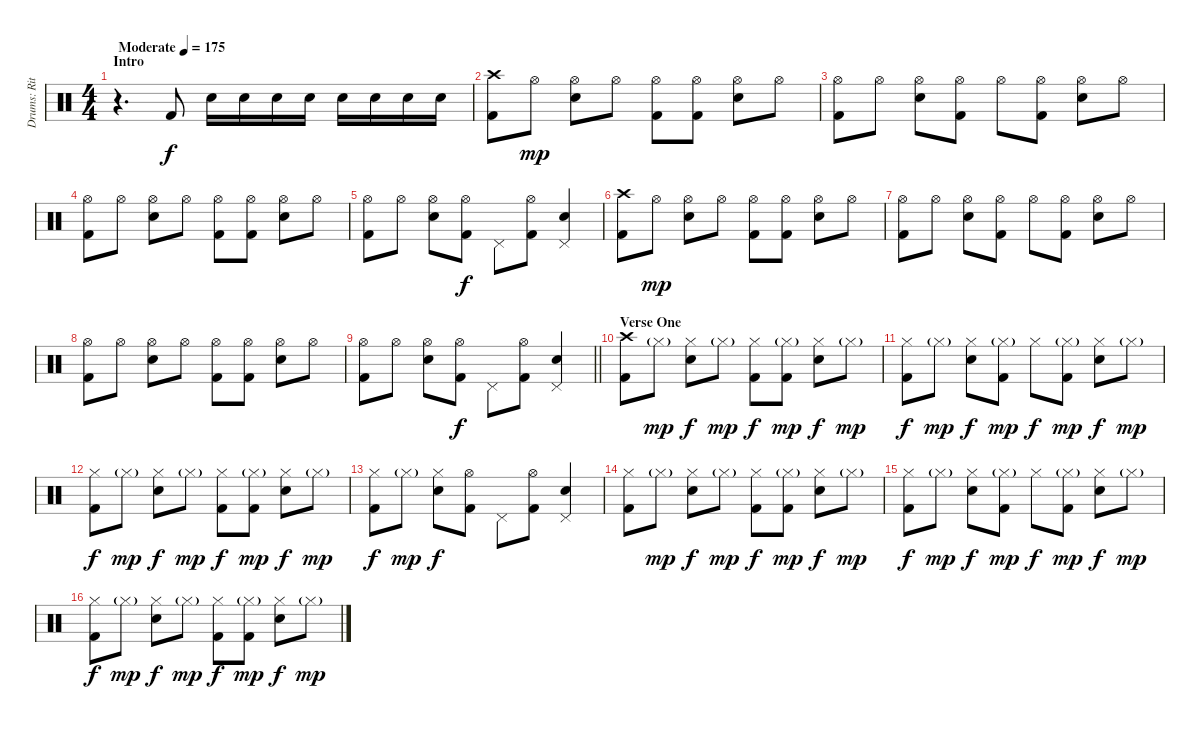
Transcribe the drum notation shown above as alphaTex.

\track ("Drums: Ritsu Tainaka" "Drums: Rit") {instrument percussion}
\staff {score}
\articulation defaults
\ts (4 4)
\section ("" "Intro")
\tempo (175 "Moderate")
\clef neutral
\ks c
r.4{d dy f} "Kick (hit) 2".8 "Snare (hit) 2".16 "Snare (hit) 2".16 "Snare (hit) 2".16 "Snare (hit) 2".16 "Snare (hit) 2".16 "Snare (hit) 2".16 "Snare (hit) 2".16 "Snare (hit) 2".16 |
("Crash high (hit)" "Kick (hit) 2").8 "Hi-Hat (open)".8{dy mp} ("Hi-Hat (open)" "Snare (hit) 2").8 "Hi-Hat (open)".8 ("Hi-Hat (open)" "Kick (hit) 2").8 ("Hi-Hat (open)" "Kick (hit) 2").8 ("Hi-Hat (open)" "Snare (hit) 2").8 "Hi-Hat (open)".8 |
("Hi-Hat (open)" "Kick (hit) 2").8 "Hi-Hat (open)".8 ("Hi-Hat (open)" "Snare (hit) 2").8 ("Hi-Hat (open)" "Kick (hit) 2").8 "Hi-Hat (open)".8 ("Hi-Hat (open)" "Kick (hit) 2").8 ("Hi-Hat (open)" "Snare (hit) 2").8 "Hi-Hat (open)".8 |
("Hi-Hat (open)" "Kick (hit) 2").8 "Hi-Hat (open)".8 ("Hi-Hat (open)" "Snare (hit) 2").8 "Hi-Hat (open)".8 ("Hi-Hat (open)" "Kick (hit) 2").8 ("Hi-Hat (open)" "Kick (hit) 2").8 ("Hi-Hat (open)" "Snare (hit) 2").8 "Hi-Hat (open)".8 |
("Hi-Hat (open)" "Kick (hit) 2").8 "Hi-Hat (open)".8 ("Hi-Hat (open)" "Snare (hit) 2").8 ("Hi-Hat (open)" "Kick (hit) 2").8{dy f} "Pedal Hi-Hat (hit)".8 ("Hi-Hat (open)" "Kick (hit) 2").8 ("Pedal Hi-Hat (hit)" "Snare (hit) 2").4 |
("Crash high (hit)" "Kick (hit) 2").8 "Hi-Hat (open)".8{dy mp} ("Hi-Hat (open)" "Snare (hit) 2").8 "Hi-Hat (open)".8 ("Hi-Hat (open)" "Kick (hit) 2").8 ("Hi-Hat (open)" "Kick (hit) 2").8 ("Hi-Hat (open)" "Snare (hit) 2").8 "Hi-Hat (open)".8 |
("Hi-Hat (open)" "Kick (hit) 2").8 "Hi-Hat (open)".8 ("Hi-Hat (open)" "Snare (hit) 2").8 ("Hi-Hat (open)" "Kick (hit) 2").8 "Hi-Hat (open)".8 ("Hi-Hat (open)" "Kick (hit) 2").8 ("Hi-Hat (open)" "Snare (hit) 2").8 "Hi-Hat (open)".8 |
("Hi-Hat (open)" "Kick (hit) 2").8 "Hi-Hat (open)".8 ("Hi-Hat (open)" "Snare (hit) 2").8 "Hi-Hat (open)".8 ("Hi-Hat (open)" "Kick (hit) 2").8 ("Hi-Hat (open)" "Kick (hit) 2").8 ("Hi-Hat (open)" "Snare (hit) 2").8 "Hi-Hat (open)".8 |
\barLineRight lightlight
("Hi-Hat (open)" "Kick (hit) 2").8 "Hi-Hat (open)".8 ("Hi-Hat (open)" "Snare (hit) 2").8 ("Hi-Hat (open)" "Kick (hit) 2").8{dy f} "Pedal Hi-Hat (hit)".8 ("Hi-Hat (open)" "Kick (hit) 2").8 ("Pedal Hi-Hat (hit)" "Snare (hit) 2").4 |
\section ("" "Verse One")
("Crash high (hit)" "Kick (hit) 2").8 "Hi-Hat (closed)"{g}.8{dy mp} ("Hi-Hat (closed)" "Snare (hit) 2").8{dy f} "Hi-Hat (closed)"{g}.8{dy mp} ("Hi-Hat (closed)" "Kick (hit) 2").8{dy f} ("Hi-Hat (closed)"{g} "Kick (hit) 2").8{dy mp} ("Hi-Hat (closed)" "Snare (hit) 2").8{dy f} "Hi-Hat (closed)"{g}.8{dy mp} |
("Hi-Hat (closed)" "Kick (hit) 2").8{dy f} "Hi-Hat (closed)"{g}.8{dy mp} ("Hi-Hat (closed)" "Snare (hit) 2").8{dy f} ("Hi-Hat (closed)"{g} "Kick (hit) 2").8{dy mp} "Hi-Hat (closed)".8{dy f} ("Hi-Hat (closed)"{g} "Kick (hit) 2").8{dy mp} ("Hi-Hat (closed)" "Snare (hit) 2").8{dy f} "Hi-Hat (closed)"{g}.8{dy mp} |
("Hi-Hat (closed)" "Kick (hit) 2").8{dy f} "Hi-Hat (closed)"{g}.8{dy mp} ("Hi-Hat (closed)" "Snare (hit) 2").8{dy f} "Hi-Hat (closed)"{g}.8{dy mp} ("Hi-Hat (closed)" "Kick (hit) 2").8{dy f} ("Hi-Hat (closed)"{g} "Kick (hit) 2").8{dy mp} ("Hi-Hat (closed)" "Snare (hit) 2").8{dy f} "Hi-Hat (closed)"{g}.8{dy mp} |
("Hi-Hat (closed)" "Kick (hit) 2").8{dy f} "Hi-Hat (closed)"{g}.8{dy mp} ("Hi-Hat (closed)" "Snare (hit) 2").8{dy f} ("Hi-Hat (open)" "Kick (hit) 2").8 "Pedal Hi-Hat (hit)".8 ("Hi-Hat (open)" "Kick (hit) 2").8 ("Pedal Hi-Hat (hit)" "Snare (hit) 2").4 |
("Hi-Hat (closed)" "Kick (hit) 2").8 "Hi-Hat (closed)"{g}.8{dy mp} ("Hi-Hat (closed)" "Snare (hit) 2").8{dy f} "Hi-Hat (closed)"{g}.8{dy mp} ("Hi-Hat (closed)" "Kick (hit) 2").8{dy f} ("Hi-Hat (closed)"{g} "Kick (hit) 2").8{dy mp} ("Hi-Hat (closed)" "Snare (hit) 2").8{dy f} "Hi-Hat (closed)"{g}.8{dy mp} |
("Hi-Hat (closed)" "Kick (hit) 2").8{dy f} "Hi-Hat (closed)"{g}.8{dy mp} ("Hi-Hat (closed)" "Snare (hit) 2").8{dy f} ("Hi-Hat (closed)"{g} "Kick (hit) 2").8{dy mp} "Hi-Hat (closed)".8{dy f} ("Hi-Hat (closed)"{g} "Kick (hit) 2").8{dy mp} ("Hi-Hat (closed)" "Snare (hit) 2").8{dy f} "Hi-Hat (closed)"{g}.8{dy mp} |
("Hi-Hat (closed)" "Kick (hit) 2").8{dy f} "Hi-Hat (closed)"{g}.8{dy mp} ("Hi-Hat (closed)" "Snare (hit) 2").8{dy f} "Hi-Hat (closed)"{g}.8{dy mp} ("Hi-Hat (closed)" "Kick (hit) 2").8{dy f} ("Hi-Hat (closed)"{g} "Kick (hit) 2").8{dy mp} ("Hi-Hat (closed)" "Snare (hit) 2").8{dy f} "Hi-Hat (closed)"{g}.8{dy mp}
